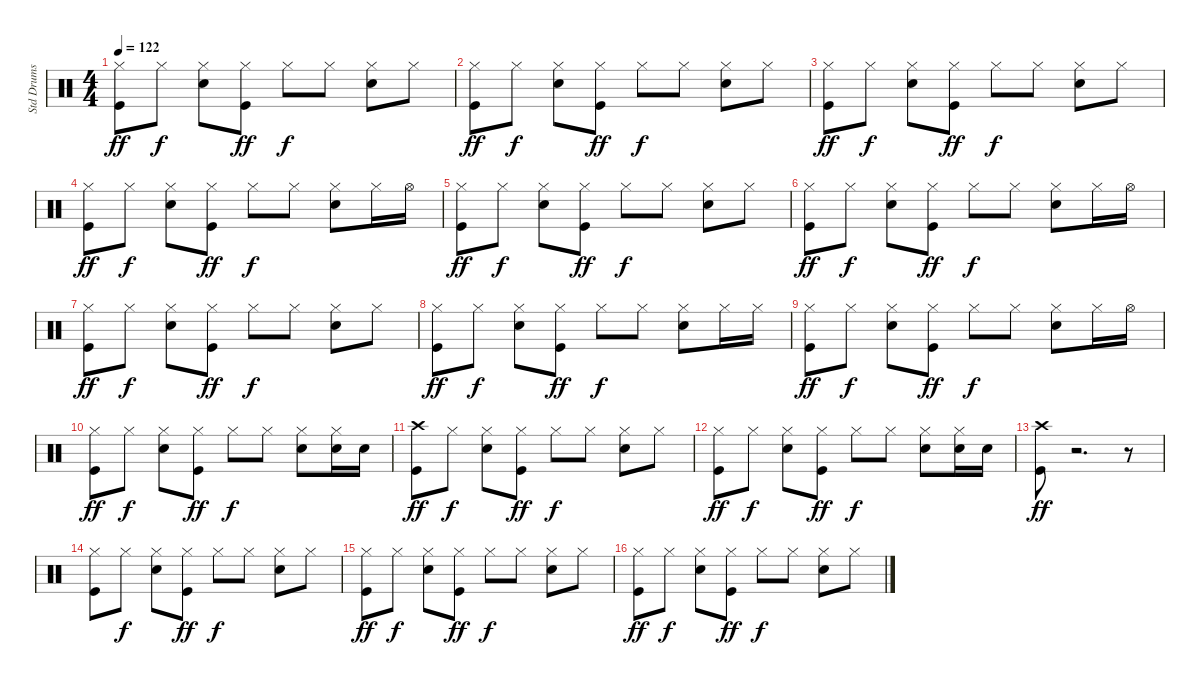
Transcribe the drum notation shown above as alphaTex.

\track ("Std Drums" "Std Drums") {instrument percussion}
\staff {score}
\articulation defaults
\ts (4 4)
\tempo 122
\clef neutral
\ks c
("Hi-Hat (closed)" "Kick (hit)").8{dy ff} "Hi-Hat (closed)".8{dy f} ("Hi-Hat (closed)" "Snare (hit) 2").8 ("Hi-Hat (closed)" "Kick (hit)").8{dy ff} "Hi-Hat (closed)".8{dy f} "Hi-Hat (closed)".8 ("Hi-Hat (closed)" "Snare (hit) 2").8 "Hi-Hat (closed)".8 |
("Hi-Hat (closed)" "Kick (hit)").8{dy ff} "Hi-Hat (closed)".8{dy f} ("Hi-Hat (closed)" "Snare (hit) 2").8 ("Hi-Hat (closed)" "Kick (hit)").8{dy ff} "Hi-Hat (closed)".8{dy f} "Hi-Hat (closed)".8 ("Hi-Hat (closed)" "Snare (hit) 2").8 "Hi-Hat (closed)".8 |
("Hi-Hat (closed)" "Kick (hit)").8{dy ff} "Hi-Hat (closed)".8{dy f} ("Hi-Hat (closed)" "Snare (hit) 2").8 ("Hi-Hat (closed)" "Kick (hit)").8{dy ff} "Hi-Hat (closed)".8{dy f} "Hi-Hat (closed)".8 ("Hi-Hat (closed)" "Snare (hit) 2").8 "Hi-Hat (closed)".8 |
("Hi-Hat (closed)" "Kick (hit)").8{dy ff} "Hi-Hat (closed)".8{dy f} ("Hi-Hat (closed)" "Snare (hit) 2").8 ("Hi-Hat (closed)" "Kick (hit)").8{dy ff} "Hi-Hat (closed)".8{dy f} "Hi-Hat (closed)".8 ("Hi-Hat (closed)" "Snare (hit) 2").8 "Hi-Hat (closed)".16 "Hi-Hat (open)".16 |
("Hi-Hat (closed)" "Kick (hit)").8{dy ff} "Hi-Hat (closed)".8{dy f} ("Hi-Hat (closed)" "Snare (hit) 2").8 ("Hi-Hat (closed)" "Kick (hit)").8{dy ff} "Hi-Hat (closed)".8{dy f} "Hi-Hat (closed)".8 ("Hi-Hat (closed)" "Snare (hit) 2").8 "Hi-Hat (closed)".8 |
("Hi-Hat (closed)" "Kick (hit)").8{dy ff} "Hi-Hat (closed)".8{dy f} ("Hi-Hat (closed)" "Snare (hit) 2").8 ("Hi-Hat (closed)" "Kick (hit)").8{dy ff} "Hi-Hat (closed)".8{dy f} "Hi-Hat (closed)".8 ("Hi-Hat (closed)" "Snare (hit) 2").8 "Hi-Hat (closed)".16 "Hi-Hat (open)".16 |
("Hi-Hat (closed)" "Kick (hit)").8{dy ff} "Hi-Hat (closed)".8{dy f} ("Hi-Hat (closed)" "Snare (hit) 2").8 ("Hi-Hat (closed)" "Kick (hit)").8{dy ff} "Hi-Hat (closed)".8{dy f} "Hi-Hat (closed)".8 ("Hi-Hat (closed)" "Snare (hit) 2").8 "Hi-Hat (closed)".8 |
("Hi-Hat (closed)" "Kick (hit)").8{dy ff} "Hi-Hat (closed)".8{dy f} ("Hi-Hat (closed)" "Snare (hit) 2").8 ("Hi-Hat (closed)" "Kick (hit)").8{dy ff} "Hi-Hat (closed)".8{dy f} "Hi-Hat (closed)".8 ("Hi-Hat (closed)" "Snare (hit) 2").8 "Hi-Hat (closed)".16 "Hi-Hat (closed)".16 |
("Hi-Hat (closed)" "Kick (hit)").8{dy ff} "Hi-Hat (closed)".8{dy f} ("Hi-Hat (closed)" "Snare (hit) 2").8 ("Hi-Hat (closed)" "Kick (hit)").8{dy ff} "Hi-Hat (closed)".8{dy f} "Hi-Hat (closed)".8 ("Hi-Hat (closed)" "Snare (hit) 2").8 "Hi-Hat (closed)".16 "Hi-Hat (open)".16 |
("Hi-Hat (closed)" "Kick (hit)").8{dy ff} "Hi-Hat (closed)".8{dy f} ("Hi-Hat (closed)" "Snare (hit) 2").8 ("Hi-Hat (closed)" "Kick (hit)").8{dy ff} "Hi-Hat (closed)".8{dy f} "Hi-Hat (closed)".8 ("Hi-Hat (closed)" "Snare (hit) 2").8 ("Hi-Hat (closed)" "Snare (hit) 2").16 "Snare (hit) 2".16 |
("Crash high (hit)" "Kick (hit)").8{dy ff} "Hi-Hat (closed)".8{dy f} ("Hi-Hat (closed)" "Snare (hit) 2").8 ("Hi-Hat (closed)" "Kick (hit)").8{dy ff} "Hi-Hat (closed)".8{dy f} "Hi-Hat (closed)".8 ("Hi-Hat (closed)" "Snare (hit) 2").8 "Hi-Hat (closed)".8 |
("Hi-Hat (closed)" "Kick (hit)").8{dy ff} "Hi-Hat (closed)".8{dy f} ("Hi-Hat (closed)" "Snare (hit) 2").8 ("Hi-Hat (closed)" "Kick (hit)").8{dy ff} "Hi-Hat (closed)".8{dy f} "Hi-Hat (closed)".8 ("Hi-Hat (closed)" "Snare (hit) 2").8 ("Hi-Hat (closed)" "Snare (hit) 2").16 "Snare (hit) 2".16 |
("Kick (hit)" "Crash high (hit)").8{dy ff} r.2{d} r.8 |
("Hi-Hat (closed)" "Kick (hit)").8 "Hi-Hat (closed)".8{dy f} ("Hi-Hat (closed)" "Snare (hit) 2").8 ("Hi-Hat (closed)" "Kick (hit)").8{dy ff} "Hi-Hat (closed)".8{dy f} "Hi-Hat (closed)".8 ("Hi-Hat (closed)" "Snare (hit) 2").8 "Hi-Hat (closed)".8 |
("Hi-Hat (closed)" "Kick (hit)").8{dy ff} "Hi-Hat (closed)".8{dy f} ("Hi-Hat (closed)" "Snare (hit) 2").8 ("Hi-Hat (closed)" "Kick (hit)").8{dy ff} "Hi-Hat (closed)".8{dy f} "Hi-Hat (closed)".8 ("Hi-Hat (closed)" "Snare (hit) 2").8 "Hi-Hat (closed)".8 |
("Hi-Hat (closed)" "Kick (hit)").8{dy ff} "Hi-Hat (closed)".8{dy f} ("Hi-Hat (closed)" "Snare (hit) 2").8 ("Hi-Hat (closed)" "Kick (hit)").8{dy ff} "Hi-Hat (closed)".8{dy f} "Hi-Hat (closed)".8 ("Hi-Hat (closed)" "Snare (hit) 2").8 "Hi-Hat (closed)".8
